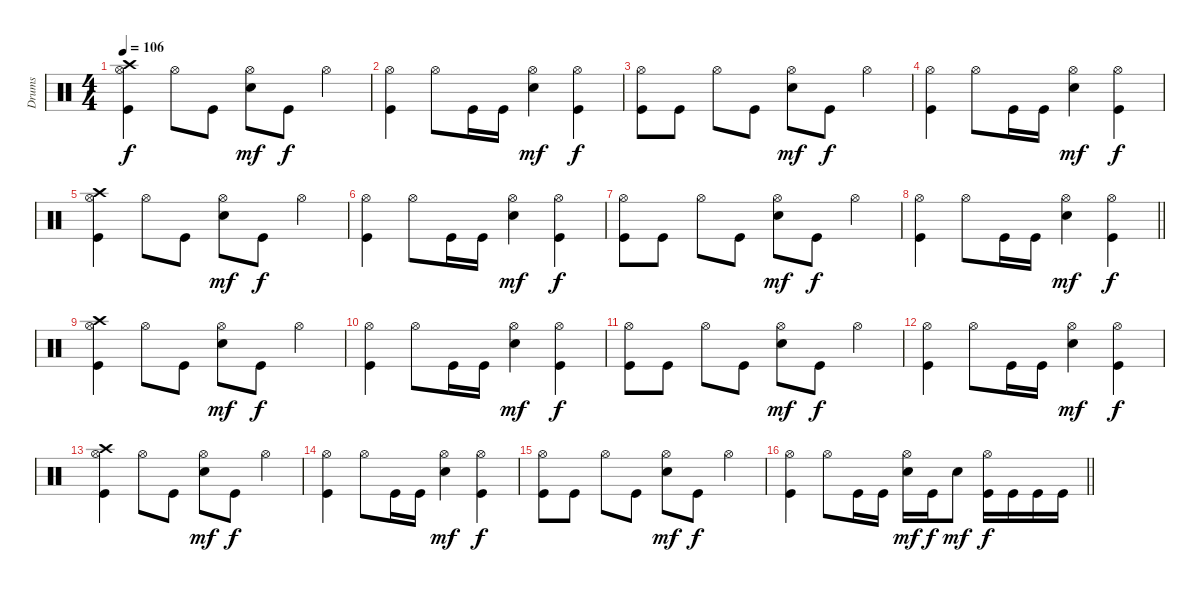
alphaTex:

\track ("Drums" "Drums") {instrument percussion}
\staff {score}
\articulation defaults
\ts (4 4)
\section ("" "")
\tempo 106
\clef neutral
\ks c
("Crash high (hit)" "Hi-Hat (open)" "Kick (hit)").4{dy f} "Hi-Hat (open)".8 "Kick (hit)".8 ("Hi-Hat (open)" "Electric Snare (hit)").8{dy mf} "Kick (hit)".8{dy f} "Hi-Hat (open)".4 |
("Hi-Hat (open)" "Kick (hit)").4 "Hi-Hat (open)".8 "Kick (hit)".16 "Kick (hit)".16 ("Hi-Hat (open)" "Electric Snare (hit)").4{dy mf} ("Hi-Hat (open)" "Kick (hit)").4{dy f} |
("Hi-Hat (open)" "Kick (hit)").8 "Kick (hit)".8 "Hi-Hat (open)".8 "Kick (hit)".8 ("Hi-Hat (open)" "Electric Snare (hit)").8{dy mf} "Kick (hit)".8{dy f} "Hi-Hat (open)".4 |
("Hi-Hat (open)" "Kick (hit)").4 "Hi-Hat (open)".8 "Kick (hit)".16 "Kick (hit)".16 ("Hi-Hat (open)" "Electric Snare (hit)").4{dy mf} ("Hi-Hat (open)" "Kick (hit)").4{dy f} |
("Crash high (hit)" "Hi-Hat (open)" "Kick (hit)").4 "Hi-Hat (open)".8 "Kick (hit)".8 ("Hi-Hat (open)" "Electric Snare (hit)").8{dy mf} "Kick (hit)".8{dy f} "Hi-Hat (open)".4 |
("Hi-Hat (open)" "Kick (hit)").4 "Hi-Hat (open)".8 "Kick (hit)".16 "Kick (hit)".16 ("Hi-Hat (open)" "Electric Snare (hit)").4{dy mf} ("Hi-Hat (open)" "Kick (hit)").4{dy f} |
("Hi-Hat (open)" "Kick (hit)").8 "Kick (hit)".8 "Hi-Hat (open)".8 "Kick (hit)".8 ("Hi-Hat (open)" "Electric Snare (hit)").8{dy mf} "Kick (hit)".8{dy f} "Hi-Hat (open)".4 |
\barLineRight lightlight
("Hi-Hat (open)" "Kick (hit)").4 "Hi-Hat (open)".8 "Kick (hit)".16 "Kick (hit)".16 ("Hi-Hat (open)" "Electric Snare (hit)").4{dy mf} ("Hi-Hat (open)" "Kick (hit)").4{dy f} |
("Crash high (hit)" "Hi-Hat (open)" "Kick (hit)").4 "Hi-Hat (open)".8 "Kick (hit)".8 ("Hi-Hat (open)" "Electric Snare (hit)").8{dy mf} "Kick (hit)".8{dy f} "Hi-Hat (open)".4 |
("Hi-Hat (open)" "Kick (hit)").4 "Hi-Hat (open)".8 "Kick (hit)".16 "Kick (hit)".16 ("Hi-Hat (open)" "Electric Snare (hit)").4{dy mf} ("Hi-Hat (open)" "Kick (hit)").4{dy f} |
("Hi-Hat (open)" "Kick (hit)").8 "Kick (hit)".8 "Hi-Hat (open)".8 "Kick (hit)".8 ("Hi-Hat (open)" "Electric Snare (hit)").8{dy mf} "Kick (hit)".8{dy f} "Hi-Hat (open)".4 |
("Hi-Hat (open)" "Kick (hit)").4 "Hi-Hat (open)".8 "Kick (hit)".16 "Kick (hit)".16 ("Hi-Hat (open)" "Electric Snare (hit)").4{dy mf} ("Hi-Hat (open)" "Kick (hit)").4{dy f} |
("Crash high (hit)" "Hi-Hat (open)" "Kick (hit)").4 "Hi-Hat (open)".8 "Kick (hit)".8 ("Hi-Hat (open)" "Electric Snare (hit)").8{dy mf} "Kick (hit)".8{dy f} "Hi-Hat (open)".4 |
("Hi-Hat (open)" "Kick (hit)").4 "Hi-Hat (open)".8 "Kick (hit)".16 "Kick (hit)".16 ("Hi-Hat (open)" "Electric Snare (hit)").4{dy mf} ("Hi-Hat (open)" "Kick (hit)").4{dy f} |
("Hi-Hat (open)" "Kick (hit)").8 "Kick (hit)".8 "Hi-Hat (open)".8 "Kick (hit)".8 ("Hi-Hat (open)" "Electric Snare (hit)").8{dy mf} "Kick (hit)".8{dy f} "Hi-Hat (open)".4 |
\barLineRight lightlight
("Hi-Hat (open)" "Kick (hit)").4 "Hi-Hat (open)".8 "Kick (hit)".16 "Kick (hit)".16 ("Hi-Hat (open)" "Electric Snare (hit)").16{dy mf} "Kick (hit)".16{dy f} "Electric Snare (hit)".8{dy mf} ("Hi-Hat (open)" "Kick (hit)").16{dy f} "Kick (hit)".16 "Kick (hit)".16 "Kick (hit)".16
